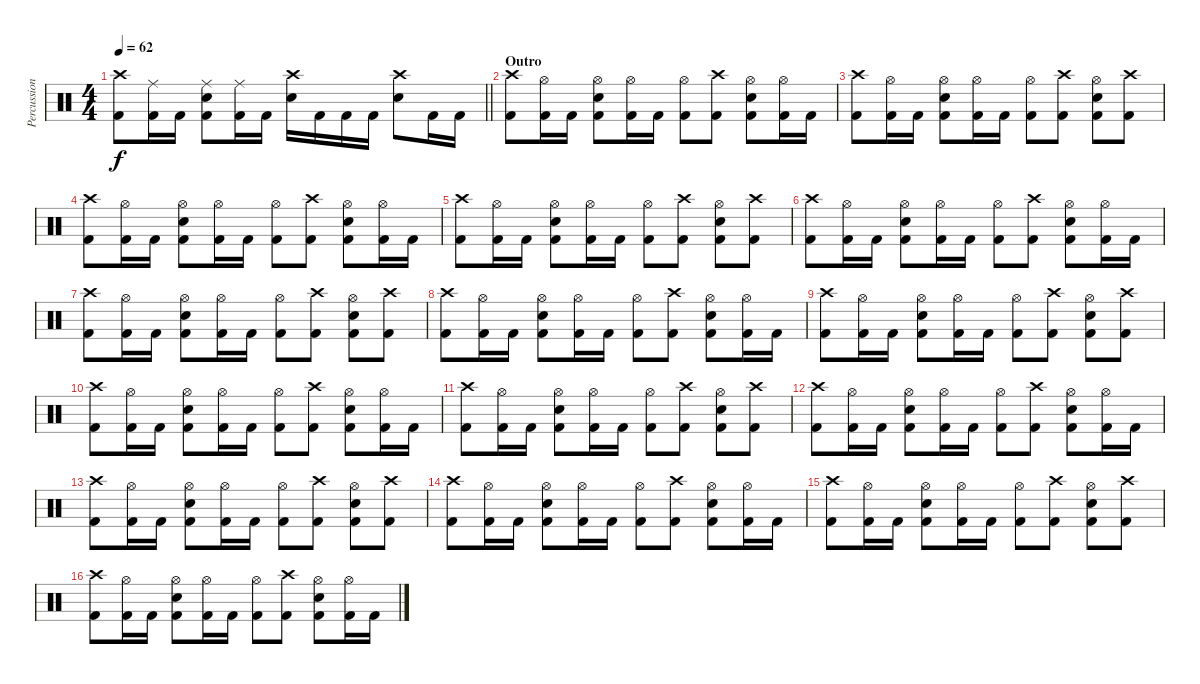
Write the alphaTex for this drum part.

\track ("Percussion" "Percussion") {instrument percussion}
\staff {score}
\articulation defaults
\ts (4 4)
\tempo 62
\clef neutral
\barLineRight lightlight
\ks c
("Crash high (hit)" "Kick (hit) 2").8{dy f} ("Ride (middle)" "Kick (hit) 2").16 "Kick (hit) 2".16 ("Ride (middle)" "Snare (hit) 2" "Kick (hit) 2").8 ("Ride (middle)" "Kick (hit) 2").16 "Kick (hit) 2".16 ("Crash high (hit)" "Snare (hit) 2").16 "Kick (hit) 2".16 "Kick (hit) 2".16 "Kick (hit) 2".16 ("Crash high (hit)" "Snare (hit) 2").8 "Kick (hit) 2".16 "Kick (hit) 2".16 |
\section ("" "Outro")
("Crash high (hit)" "Kick (hit) 2").8 ("Hi-Hat (open)" "Kick (hit) 2").16 "Kick (hit) 2".16 ("Hi-Hat (open)" "Snare (hit) 2" "Kick (hit) 2").8 ("Hi-Hat (open)" "Kick (hit) 2").16 "Kick (hit) 2".16 ("Hi-Hat (open)" "Kick (hit) 2").8 ("Crash high (hit)" "Kick (hit) 2").8 ("Hi-Hat (open)" "Snare (hit) 2" "Kick (hit) 2").8 ("Hi-Hat (open)" "Kick (hit) 2").16 "Kick (hit) 2".16 |
("Crash high (hit)" "Kick (hit) 2").8 ("Hi-Hat (open)" "Kick (hit) 2").16 "Kick (hit) 2".16 ("Hi-Hat (open)" "Snare (hit) 2" "Kick (hit) 2").8 ("Hi-Hat (open)" "Kick (hit) 2").16 "Kick (hit) 2".16 ("Hi-Hat (open)" "Kick (hit) 2").8 ("Crash high (hit)" "Kick (hit) 2").8 ("Hi-Hat (open)" "Snare (hit) 2" "Kick (hit) 2").8 ("Crash high (hit)" "Kick (hit) 2").8 |
("Crash high (hit)" "Kick (hit) 2").8 ("Hi-Hat (open)" "Kick (hit) 2").16 "Kick (hit) 2".16 ("Hi-Hat (open)" "Snare (hit) 2" "Kick (hit) 2").8 ("Hi-Hat (open)" "Kick (hit) 2").16 "Kick (hit) 2".16 ("Hi-Hat (open)" "Kick (hit) 2").8 ("Crash high (hit)" "Kick (hit) 2").8 ("Hi-Hat (open)" "Snare (hit) 2" "Kick (hit) 2").8 ("Hi-Hat (open)" "Kick (hit) 2").16 "Kick (hit) 2".16 |
("Crash high (hit)" "Kick (hit) 2").8 ("Hi-Hat (open)" "Kick (hit) 2").16 "Kick (hit) 2".16 ("Hi-Hat (open)" "Snare (hit) 2" "Kick (hit) 2").8 ("Hi-Hat (open)" "Kick (hit) 2").16 "Kick (hit) 2".16 ("Hi-Hat (open)" "Kick (hit) 2").8 ("Crash high (hit)" "Kick (hit) 2").8 ("Hi-Hat (open)" "Snare (hit) 2" "Kick (hit) 2").8 ("Crash high (hit)" "Kick (hit) 2").8 |
("Crash high (hit)" "Kick (hit) 2").8 ("Hi-Hat (open)" "Kick (hit) 2").16 "Kick (hit) 2".16 ("Hi-Hat (open)" "Snare (hit) 2" "Kick (hit) 2").8 ("Hi-Hat (open)" "Kick (hit) 2").16 "Kick (hit) 2".16 ("Hi-Hat (open)" "Kick (hit) 2").8 ("Crash high (hit)" "Kick (hit) 2").8 ("Hi-Hat (open)" "Snare (hit) 2" "Kick (hit) 2").8 ("Hi-Hat (open)" "Kick (hit) 2").16 "Kick (hit) 2".16 |
("Crash high (hit)" "Kick (hit) 2").8 ("Hi-Hat (open)" "Kick (hit) 2").16 "Kick (hit) 2".16 ("Hi-Hat (open)" "Snare (hit) 2" "Kick (hit) 2").8 ("Hi-Hat (open)" "Kick (hit) 2").16 "Kick (hit) 2".16 ("Hi-Hat (open)" "Kick (hit) 2").8 ("Crash high (hit)" "Kick (hit) 2").8 ("Hi-Hat (open)" "Snare (hit) 2" "Kick (hit) 2").8 ("Crash high (hit)" "Kick (hit) 2").8 |
("Crash high (hit)" "Kick (hit) 2").8 ("Hi-Hat (open)" "Kick (hit) 2").16 "Kick (hit) 2".16 ("Hi-Hat (open)" "Snare (hit) 2" "Kick (hit) 2").8 ("Hi-Hat (open)" "Kick (hit) 2").16 "Kick (hit) 2".16 ("Hi-Hat (open)" "Kick (hit) 2").8 ("Crash high (hit)" "Kick (hit) 2").8 ("Hi-Hat (open)" "Snare (hit) 2" "Kick (hit) 2").8 ("Hi-Hat (open)" "Kick (hit) 2").16 "Kick (hit) 2".16 |
("Crash high (hit)" "Kick (hit) 2").8 ("Hi-Hat (open)" "Kick (hit) 2").16 "Kick (hit) 2".16 ("Hi-Hat (open)" "Snare (hit) 2" "Kick (hit) 2").8 ("Hi-Hat (open)" "Kick (hit) 2").16 "Kick (hit) 2".16 ("Hi-Hat (open)" "Kick (hit) 2").8 ("Crash high (hit)" "Kick (hit) 2").8 ("Hi-Hat (open)" "Snare (hit) 2" "Kick (hit) 2").8 ("Crash high (hit)" "Kick (hit) 2").8 |
("Crash high (hit)" "Kick (hit) 2").8 ("Hi-Hat (open)" "Kick (hit) 2").16 "Kick (hit) 2".16 ("Hi-Hat (open)" "Snare (hit) 2" "Kick (hit) 2").8 ("Hi-Hat (open)" "Kick (hit) 2").16 "Kick (hit) 2".16 ("Hi-Hat (open)" "Kick (hit) 2").8 ("Crash high (hit)" "Kick (hit) 2").8 ("Hi-Hat (open)" "Snare (hit) 2" "Kick (hit) 2").8 ("Hi-Hat (open)" "Kick (hit) 2").16 "Kick (hit) 2".16 |
("Crash high (hit)" "Kick (hit) 2").8 ("Hi-Hat (open)" "Kick (hit) 2").16 "Kick (hit) 2".16 ("Hi-Hat (open)" "Snare (hit) 2" "Kick (hit) 2").8 ("Hi-Hat (open)" "Kick (hit) 2").16 "Kick (hit) 2".16 ("Hi-Hat (open)" "Kick (hit) 2").8 ("Crash high (hit)" "Kick (hit) 2").8 ("Hi-Hat (open)" "Snare (hit) 2" "Kick (hit) 2").8 ("Crash high (hit)" "Kick (hit) 2").8 |
("Crash high (hit)" "Kick (hit) 2").8 ("Hi-Hat (open)" "Kick (hit) 2").16 "Kick (hit) 2".16 ("Hi-Hat (open)" "Snare (hit) 2" "Kick (hit) 2").8 ("Hi-Hat (open)" "Kick (hit) 2").16 "Kick (hit) 2".16 ("Hi-Hat (open)" "Kick (hit) 2").8 ("Crash high (hit)" "Kick (hit) 2").8 ("Hi-Hat (open)" "Snare (hit) 2" "Kick (hit) 2").8 ("Hi-Hat (open)" "Kick (hit) 2").16 "Kick (hit) 2".16 |
("Crash high (hit)" "Kick (hit) 2").8 ("Hi-Hat (open)" "Kick (hit) 2").16 "Kick (hit) 2".16 ("Hi-Hat (open)" "Snare (hit) 2" "Kick (hit) 2").8 ("Hi-Hat (open)" "Kick (hit) 2").16 "Kick (hit) 2".16 ("Hi-Hat (open)" "Kick (hit) 2").8 ("Crash high (hit)" "Kick (hit) 2").8 ("Hi-Hat (open)" "Snare (hit) 2" "Kick (hit) 2").8 ("Crash high (hit)" "Kick (hit) 2").8 |
("Crash high (hit)" "Kick (hit) 2").8 ("Hi-Hat (open)" "Kick (hit) 2").16 "Kick (hit) 2".16 ("Hi-Hat (open)" "Snare (hit) 2" "Kick (hit) 2").8 ("Hi-Hat (open)" "Kick (hit) 2").16 "Kick (hit) 2".16 ("Hi-Hat (open)" "Kick (hit) 2").8 ("Crash high (hit)" "Kick (hit) 2").8 ("Hi-Hat (open)" "Snare (hit) 2" "Kick (hit) 2").8 ("Hi-Hat (open)" "Kick (hit) 2").16 "Kick (hit) 2".16 |
("Crash high (hit)" "Kick (hit) 2").8 ("Hi-Hat (open)" "Kick (hit) 2").16 "Kick (hit) 2".16 ("Hi-Hat (open)" "Snare (hit) 2" "Kick (hit) 2").8 ("Hi-Hat (open)" "Kick (hit) 2").16 "Kick (hit) 2".16 ("Hi-Hat (open)" "Kick (hit) 2").8 ("Crash high (hit)" "Kick (hit) 2").8 ("Hi-Hat (open)" "Snare (hit) 2" "Kick (hit) 2").8 ("Crash high (hit)" "Kick (hit) 2").8 |
("Crash high (hit)" "Kick (hit) 2").8 ("Hi-Hat (open)" "Kick (hit) 2").16 "Kick (hit) 2".16 ("Hi-Hat (open)" "Snare (hit) 2" "Kick (hit) 2").8 ("Hi-Hat (open)" "Kick (hit) 2").16 "Kick (hit) 2".16 ("Hi-Hat (open)" "Kick (hit) 2").8 ("Crash high (hit)" "Kick (hit) 2").8 ("Hi-Hat (open)" "Snare (hit) 2" "Kick (hit) 2").8 ("Hi-Hat (open)" "Kick (hit) 2").16 "Kick (hit) 2".16
